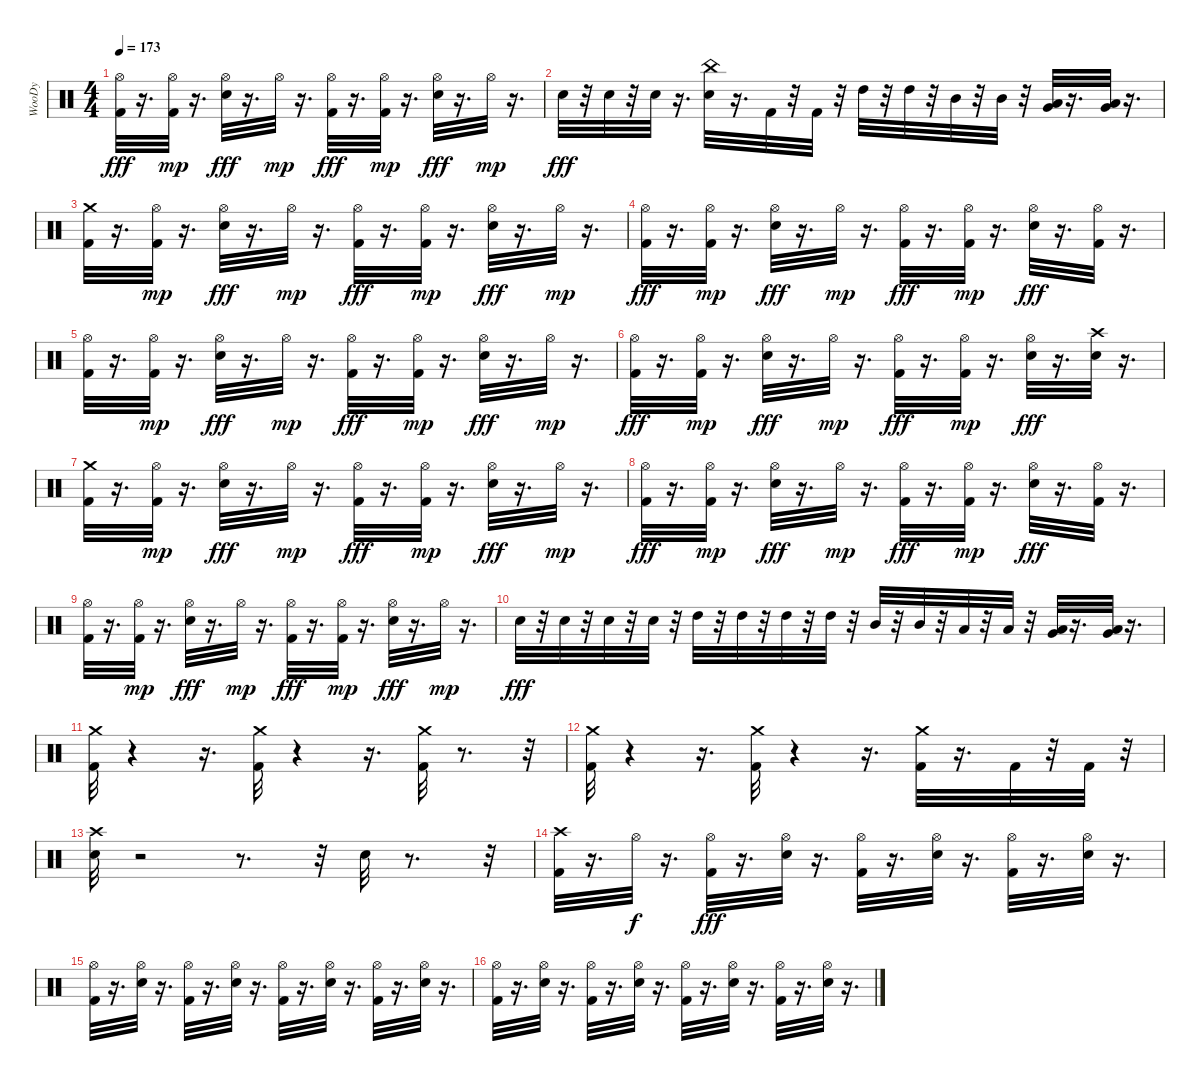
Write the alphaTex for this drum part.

\track ("WooDy" "WooDy") {instrument percussion}
\staff {score}
\articulation defaults
\ts (4 4)
\tempo 173
\clef neutral
\ks c
("Kick (hit) 2" "Hi-Hat (open)").32{dy fff} r.16{d} ("Kick (hit) 2" "Hi-Hat (open)").32{dy mp} r.16{d} ("Electric Snare (hit)" "Hi-Hat (open)").32{dy fff} r.16{d} "Hi-Hat (open)".32{dy mp} r.16{d} ("Kick (hit) 2" "Hi-Hat (open)").32{dy fff} r.16{d} ("Kick (hit) 2" "Hi-Hat (open)").32{dy mp} r.16{d} ("Electric Snare (hit)" "Hi-Hat (open)").32{dy fff} r.16{d} "Hi-Hat (open)".32{dy mp} r.16{d} |
"Electric Snare (hit)".32{dy fff} r.32 "Electric Snare (hit)".32 r.32 "Electric Snare (hit)".32 r.16{d} ("Electric Snare (hit)" "China (hit)").32 r.16{d} "Kick (hit) 2".32 r.32 "Kick (hit) 2".32 r.32 "High Tom (hit)".32 r.32 "High Tom (hit)".32 r.32 "Mid Tom (hit)".32 r.32 "Mid Tom (hit)".32 r.32 ("Very Low Tom (hit)" "Low Tom (hit)").32 r.16{d} ("Very Low Tom (hit)" "Low Tom (hit)").32 r.16{d} |
("Kick (hit) 2" "Crash medium (hit)").32 r.16{d} ("Kick (hit) 2" "Hi-Hat (open)").32{dy mp} r.16{d} ("Electric Snare (hit)" "Hi-Hat (open)").32{dy fff} r.16{d} "Hi-Hat (open)".32{dy mp} r.16{d} ("Kick (hit) 2" "Hi-Hat (open)").32{dy fff} r.16{d} ("Kick (hit) 2" "Hi-Hat (open)").32{dy mp} r.16{d} ("Electric Snare (hit)" "Hi-Hat (open)").32{dy fff} r.16{d} "Hi-Hat (open)".32{dy mp} r.16{d} |
("Kick (hit) 2" "Hi-Hat (open)").32{dy fff} r.16{d} ("Kick (hit) 2" "Hi-Hat (open)").32{dy mp} r.16{d} ("Electric Snare (hit)" "Hi-Hat (open)").32{dy fff} r.16{d} "Hi-Hat (open)".32{dy mp} r.16{d} ("Kick (hit) 2" "Hi-Hat (open)").32{dy fff} r.16{d} ("Kick (hit) 2" "Hi-Hat (open)").32{dy mp} r.16{d} ("Electric Snare (hit)" "Hi-Hat (open)").32{dy fff} r.16{d} ("Kick (hit) 2" "Hi-Hat (open)").32 r.16{d} |
("Kick (hit) 2" "Hi-Hat (open)").32 r.16{d} ("Kick (hit) 2" "Hi-Hat (open)").32{dy mp} r.16{d} ("Electric Snare (hit)" "Hi-Hat (open)").32{dy fff} r.16{d} "Hi-Hat (open)".32{dy mp} r.16{d} ("Kick (hit) 2" "Hi-Hat (open)").32{dy fff} r.16{d} ("Kick (hit) 2" "Hi-Hat (open)").32{dy mp} r.16{d} ("Electric Snare (hit)" "Hi-Hat (open)").32{dy fff} r.16{d} "Hi-Hat (open)".32{dy mp} r.16{d} |
("Kick (hit) 2" "Hi-Hat (open)").32{dy fff} r.16{d} ("Kick (hit) 2" "Hi-Hat (open)").32{dy mp} r.16{d} ("Electric Snare (hit)" "Hi-Hat (open)").32{dy fff} r.16{d} "Hi-Hat (open)".32{dy mp} r.16{d} ("Kick (hit) 2" "Hi-Hat (open)").32{dy fff} r.16{d} ("Kick (hit) 2" "Hi-Hat (open)").32{dy mp} r.16{d} ("Electric Snare (hit)" "Hi-Hat (open)").32{dy fff} r.16{d} ("Electric Snare (hit)" "Crash high (hit)").32 r.16{d} |
("Kick (hit) 2" "Crash medium (hit)").32 r.16{d} ("Kick (hit) 2" "Hi-Hat (open)").32{dy mp} r.16{d} ("Electric Snare (hit)" "Hi-Hat (open)").32{dy fff} r.16{d} "Hi-Hat (open)".32{dy mp} r.16{d} ("Kick (hit) 2" "Hi-Hat (open)").32{dy fff} r.16{d} ("Kick (hit) 2" "Hi-Hat (open)").32{dy mp} r.16{d} ("Electric Snare (hit)" "Hi-Hat (open)").32{dy fff} r.16{d} "Hi-Hat (open)".32{dy mp} r.16{d} |
("Kick (hit) 2" "Hi-Hat (open)").32{dy fff} r.16{d} ("Kick (hit) 2" "Hi-Hat (open)").32{dy mp} r.16{d} ("Electric Snare (hit)" "Hi-Hat (open)").32{dy fff} r.16{d} "Hi-Hat (open)".32{dy mp} r.16{d} ("Kick (hit) 2" "Hi-Hat (open)").32{dy fff} r.16{d} ("Kick (hit) 2" "Hi-Hat (open)").32{dy mp} r.16{d} ("Electric Snare (hit)" "Hi-Hat (open)").32{dy fff} r.16{d} ("Kick (hit) 2" "Hi-Hat (open)").32 r.16{d} |
("Kick (hit) 2" "Hi-Hat (open)").32 r.16{d} ("Kick (hit) 2" "Hi-Hat (open)").32{dy mp} r.16{d} ("Electric Snare (hit)" "Hi-Hat (open)").32{dy fff} r.16{d} "Hi-Hat (open)".32{dy mp} r.16{d} ("Kick (hit) 2" "Hi-Hat (open)").32{dy fff} r.16{d} ("Kick (hit) 2" "Hi-Hat (open)").32{dy mp} r.16{d} ("Electric Snare (hit)" "Hi-Hat (open)").32{dy fff} r.16{d} "Hi-Hat (open)".32{dy mp} r.16{d} |
"Electric Snare (hit)".32{dy fff} r.32 "Electric Snare (hit)".32 r.32 "Electric Snare (hit)".32 r.32 "Electric Snare (hit)".32 r.32 "High Tom (hit)".32 r.32 "High Tom (hit)".32 r.32 "High Tom (hit)".32 r.32 "High Tom (hit)".32 r.32 "Mid Tom (hit)".32 r.32 "Mid Tom (hit)".32 r.32 "Low Tom (hit)".32 r.32 "Low Tom (hit)".32 r.32 ("Very Low Tom (hit)" "Low Tom (hit)").32 r.16{d} ("Very Low Tom (hit)" "Low Tom (hit)").32 r.16{d} |
("Kick (hit) 2" "Crash medium (hit)").32 r.4 r.16{d} ("Kick (hit) 2" "Crash medium (hit)").32 r.4 r.16{d} ("Kick (hit) 2" "Crash medium (hit)").32 r.8{d} r.32 |
("Kick (hit) 2" "Crash medium (hit)").32 r.4 r.16{d} ("Kick (hit) 2" "Crash medium (hit)").32 r.4 r.16{d} ("Kick (hit) 2" "Crash medium (hit)").32 r.16{d} "Kick (hit) 2".32 r.32 "Kick (hit) 2".32 r.32 |
("Electric Snare (hit)" "Crash high (hit)").32 r.2 r.8{d} r.32 "Electric Snare (hit)".32 r.8{d} r.32 |
("Kick (hit) 2" "Crash high (hit)").32 r.16{d} "Hi-Hat (open)".32{dy f} r.16{d} ("Kick (hit) 2" "Hi-Hat (open)").32{dy fff} r.16{d} ("Electric Snare (hit)" "Hi-Hat (open)").32 r.16{d} ("Kick (hit) 2" "Hi-Hat (open)").32 r.16{d} ("Electric Snare (hit)" "Hi-Hat (open)").32 r.16{d} ("Kick (hit) 2" "Hi-Hat (open)").32 r.16{d} ("Electric Snare (hit)" "Hi-Hat (open)").32 r.16{d} |
("Kick (hit) 2" "Hi-Hat (open)").32 r.16{d} ("Electric Snare (hit)" "Hi-Hat (open)").32 r.16{d} ("Kick (hit) 2" "Hi-Hat (open)").32 r.16{d} ("Electric Snare (hit)" "Hi-Hat (open)").32 r.16{d} ("Kick (hit) 2" "Hi-Hat (open)").32 r.16{d} ("Electric Snare (hit)" "Hi-Hat (open)").32 r.16{d} ("Kick (hit) 2" "Hi-Hat (open)").32 r.16{d} ("Electric Snare (hit)" "Hi-Hat (open)").32 r.16{d} |
("Kick (hit) 2" "Hi-Hat (open)").32 r.16{d} ("Electric Snare (hit)" "Hi-Hat (open)").32 r.16{d} ("Kick (hit) 2" "Hi-Hat (open)").32 r.16{d} ("Electric Snare (hit)" "Hi-Hat (open)").32 r.16{d} ("Kick (hit) 2" "Hi-Hat (open)").32 r.16{d} ("Electric Snare (hit)" "Hi-Hat (open)").32 r.16{d} ("Kick (hit) 2" "Hi-Hat (open)").32 r.16{d} ("Electric Snare (hit)" "Hi-Hat (open)").32 r.16{d}
